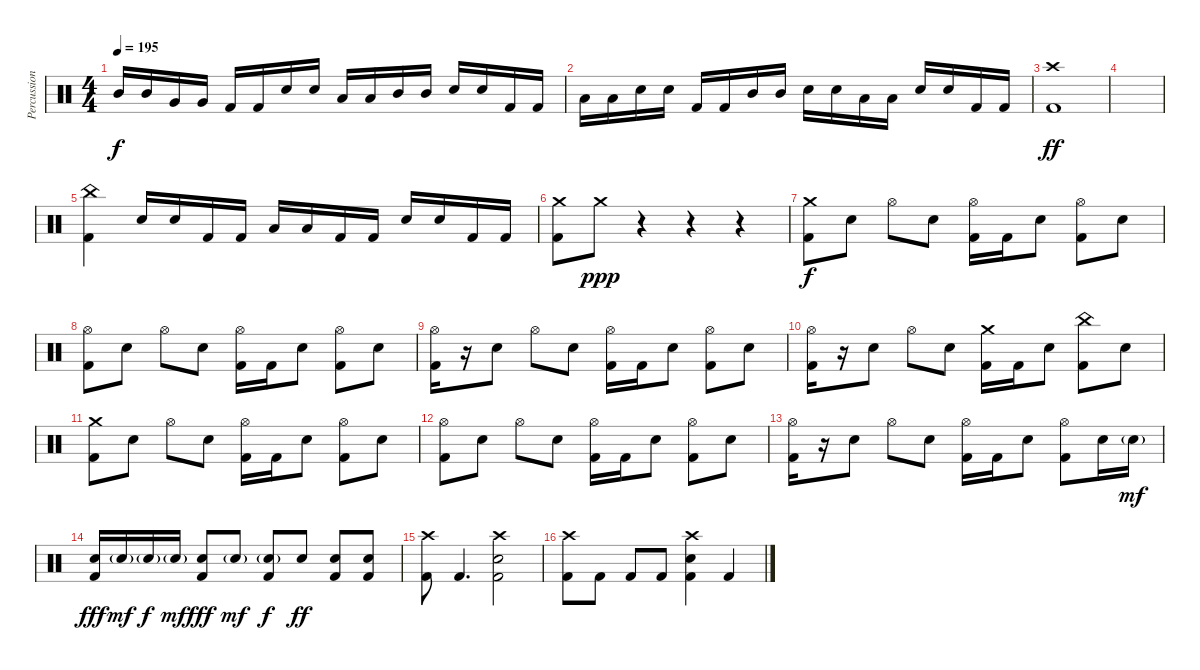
\track ("Percussion" "Percussion") {instrument percussion}
\staff {score}
\articulation defaults
\ts (4 4)
\tempo 195
\clef neutral
\ks c "Mid Tom (hit)".16{dy f} "Mid Tom (hit)".16 "Very Low Tom (hit)".16 "Very Low Tom (hit)".16 "Kick (hit) 2".16 "Kick (hit) 2".16 "Electric Snare (hit)".16 "Electric Snare (hit)".16 "Low Tom (hit)".16 "Low Tom (hit)".16 "Mid Tom (hit)".16 "Mid Tom (hit)".16 "Electric Snare (hit)".16 "Electric Snare (hit)".16 "Kick (hit) 2".16 "Kick (hit) 2".16
|
"Low Tom (hit)".16 "Low Tom (hit)".16 "Electric Snare (hit)".16 "Electric Snare (hit)".16 "Kick (hit) 2".16 "Kick (hit) 2".16 "Mid Tom (hit)".16 "Mid Tom (hit)".16 "Electric Snare (hit)".16 "Electric Snare (hit)".16 "Low Tom (hit)".16 "Low Tom (hit)".16 "Electric Snare (hit)".16 "Electric Snare (hit)".16 "Kick (hit) 2".16 "Kick (hit) 2".16 |
("Crash high (hit)" "Kick (hit) 2").1{dy ff} |
|
("China (hit)" "Kick (hit) 2").4 "Electric Snare (hit)".16 "Electric Snare (hit)".16 "Kick (hit) 2".16 "Kick (hit) 2".16 "Low Tom (hit)".16 "Low Tom (hit)".16 "Kick (hit) 2".16 "Kick (hit) 2".16 "Electric Snare (hit)".16 "Electric Snare (hit)".16 "Kick (hit) 2".16 "Kick (hit) 2".16 |
("Crash medium (hit)" "Kick (hit) 2").8 "Crash medium (hit)".8{dy ppp} r.4 r.4 r.4 |
("Crash medium (hit)" "Kick (hit) 2").8{dy f} "Electric Snare (hit)".8 "Hi-Hat (open)".8 "Electric Snare (hit)".8 ("Hi-Hat (open)" "Kick (hit) 2").16 "Kick (hit) 2".16 "Electric Snare (hit)".8 ("Hi-Hat (open)" "Kick (hit) 2").8 "Electric Snare (hit)".8 |
("Hi-Hat (open)" "Kick (hit) 2").8 "Electric Snare (hit)".8 "Hi-Hat (open)".8 "Electric Snare (hit)".8 ("Hi-Hat (open)" "Kick (hit) 2").16 "Kick (hit) 2".16 "Electric Snare (hit)".8 ("Hi-Hat (open)" "Kick (hit) 2").8 "Electric Snare (hit)".8 |
("Hi-Hat (open)" "Kick (hit) 2").16 r.16 "Electric Snare (hit)".8 "Hi-Hat (open)".8 "Electric Snare (hit)".8 ("Hi-Hat (open)" "Kick (hit) 2").16 "Kick (hit) 2".16 "Electric Snare (hit)".8 ("Hi-Hat (open)" "Kick (hit) 2").8 "Electric Snare (hit)".8 |
("Hi-Hat (open)" "Kick (hit) 2").16 r.16 "Electric Snare (hit)".8 "Hi-Hat (open)".8 "Electric Snare (hit)".8 ("Crash medium (hit)" "Kick (hit) 2").16 "Kick (hit) 2".16 "Electric Snare (hit)".8 ("China (hit)" "Kick (hit) 2").8 "Electric Snare (hit)".8 |
("Crash medium (hit)" "Kick (hit) 2").8 "Electric Snare (hit)".8 "Hi-Hat (open)".8 "Electric Snare (hit)".8 ("Hi-Hat (open)" "Kick (hit) 2").16 "Kick (hit) 2".16 "Electric Snare (hit)".8 ("Hi-Hat (open)" "Kick (hit) 2").8 "Electric Snare (hit)".8 |
("Hi-Hat (open)" "Kick (hit) 2").8 "Electric Snare (hit)".8 "Hi-Hat (open)".8 "Electric Snare (hit)".8 ("Hi-Hat (open)" "Kick (hit) 2").16 "Kick (hit) 2".16 "Electric Snare (hit)".8 ("Hi-Hat (open)" "Kick (hit) 2").8 "Electric Snare (hit)".8 |
("Hi-Hat (open)" "Kick (hit) 2").16 r.16 "Electric Snare (hit)".8 "Hi-Hat (open)".8 "Electric Snare (hit)".8 ("Hi-Hat (open)" "Kick (hit) 2").16 "Kick (hit) 2".16 "Electric Snare (hit)".8 ("Hi-Hat (open)" "Kick (hit) 2").8 "Electric Snare (hit)".16 "Electric Snare (hit)"{g}.16{dy mf} |
("Electric Snare (hit)" "Kick (hit) 2").16{dy fff} "Electric Snare (hit)"{g}.16{dy mf} "Electric Snare (hit)"{g}.16{dy f} "Electric Snare (hit)"{g}.16{dy mf} ("Electric Snare (hit)" "Kick (hit) 2").8{dy fff} "Electric Snare (hit)"{g}.8{dy mf} ("Electric Snare (hit)"{g} "Kick (hit) 2").8{dy f} "Electric Snare (hit)".8{dy ff} ("Electric Snare (hit)" "Kick (hit) 2").8 ("Electric Snare (hit)" "Kick (hit) 2").8 |
("Crash high (hit)" "Kick (hit) 2").8 "Kick (hit) 2".4{d} ("Crash high (hit)" "Electric Snare (hit)" "Kick (hit) 2").2 |
("Crash high (hit)" "Kick (hit) 2").8 "Kick (hit) 2".8 "Kick (hit) 2".8 "Kick (hit) 2".8 ("Crash high (hit)" "Electric Snare (hit)" "Kick (hit) 2").4 "Kick (hit) 2".4
